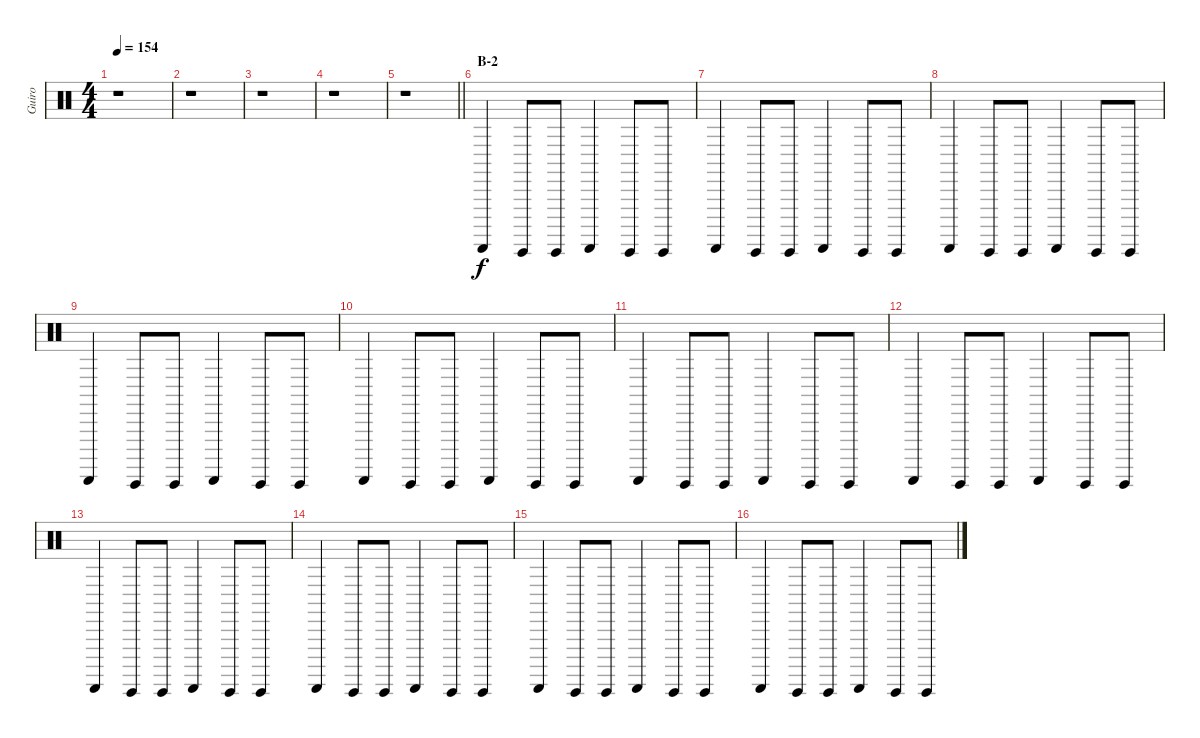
\track ("Guiro" "Guiro") {instrument percussion}
\staff {score}
\articulation defaults
\ts (4 4)
\tempo 154
\clef neutral
\ks c
r.1{dy f} |
r.1 |
r.1 |
r.1 |
\barLineRight lightlight
r.1 |
\section ("" "B-2")
"Guiro (scrap-return)".4 "Guiro (hit)".8 "Guiro (hit)".8 "Guiro (scrap-return)".4 "Guiro (hit)".8 "Guiro (hit)".8 |
"Guiro (scrap-return)".4 "Guiro (hit)".8 "Guiro (hit)".8 "Guiro (scrap-return)".4 "Guiro (hit)".8 "Guiro (hit)".8 |
"Guiro (scrap-return)".4 "Guiro (hit)".8 "Guiro (hit)".8 "Guiro (scrap-return)".4 "Guiro (hit)".8 "Guiro (hit)".8 |
"Guiro (scrap-return)".4 "Guiro (hit)".8 "Guiro (hit)".8 "Guiro (scrap-return)".4 "Guiro (hit)".8 "Guiro (hit)".8 |
"Guiro (scrap-return)".4 "Guiro (hit)".8 "Guiro (hit)".8 "Guiro (scrap-return)".4 "Guiro (hit)".8 "Guiro (hit)".8 |
"Guiro (scrap-return)".4 "Guiro (hit)".8 "Guiro (hit)".8 "Guiro (scrap-return)".4 "Guiro (hit)".8 "Guiro (hit)".8 |
"Guiro (scrap-return)".4 "Guiro (hit)".8 "Guiro (hit)".8 "Guiro (scrap-return)".4 "Guiro (hit)".8 "Guiro (hit)".8 |
"Guiro (scrap-return)".4 "Guiro (hit)".8 "Guiro (hit)".8 "Guiro (scrap-return)".4 "Guiro (hit)".8 "Guiro (hit)".8 |
"Guiro (scrap-return)".4 "Guiro (hit)".8 "Guiro (hit)".8 "Guiro (scrap-return)".4 "Guiro (hit)".8 "Guiro (hit)".8 |
"Guiro (scrap-return)".4 "Guiro (hit)".8 "Guiro (hit)".8 "Guiro (scrap-return)".4 "Guiro (hit)".8 "Guiro (hit)".8 |
"Guiro (scrap-return)".4 "Guiro (hit)".8 "Guiro (hit)".8 "Guiro (scrap-return)".4 "Guiro (hit)".8 "Guiro (hit)".8
